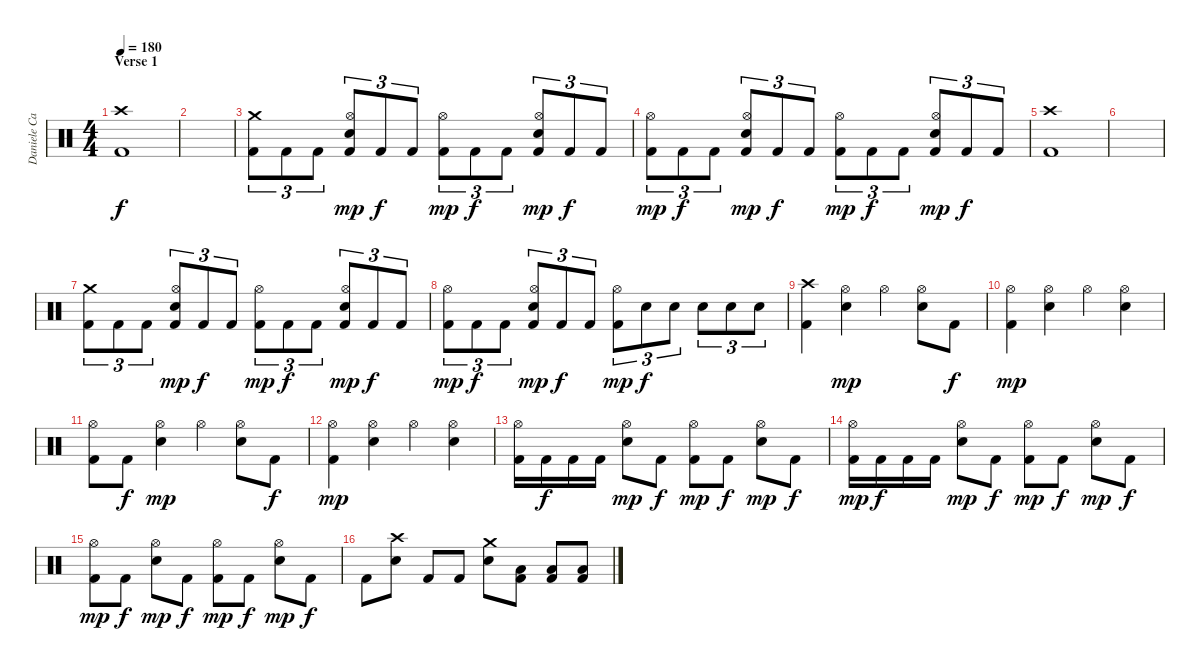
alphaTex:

\track ("Daniele Carbonera" "Daniele Ca") {instrument percussion}
\staff {score}
\articulation defaults
\ts (4 4)
\section ("" "Verse 1")
\tempo 180
\clef neutral
\ks c
("Kick (hit) 2" "Crash high (hit)").1{dy f} |
|
("Kick (hit) 2" "Crash medium (hit)").8{tu (3 2)} "Kick (hit) 2".8{tu (3 2)} "Kick (hit) 2".8{tu (3 2)} ("Kick (hit) 2" "Hi-Hat (open)" "Snare (hit) 2").8{tu (3 2) dy mp} "Kick (hit) 2".8{tu (3 2) dy f} "Kick (hit) 2".8{tu (3 2)} ("Kick (hit) 2" "Hi-Hat (open)").8{tu (3 2) dy mp} "Kick (hit) 2".8{tu (3 2) dy f} "Kick (hit) 2".8{tu (3 2)} ("Kick (hit) 2" "Hi-Hat (open)" "Snare (hit) 2").8{tu (3 2) dy mp} "Kick (hit) 2".8{tu (3 2) dy f} "Kick (hit) 2".8{tu (3 2)} |
("Kick (hit) 2" "Hi-Hat (open)").8{tu (3 2) dy mp} "Kick (hit) 2".8{tu (3 2) dy f} "Kick (hit) 2".8{tu (3 2)} ("Kick (hit) 2" "Hi-Hat (open)" "Snare (hit) 2").8{tu (3 2) dy mp} "Kick (hit) 2".8{tu (3 2) dy f} "Kick (hit) 2".8{tu (3 2)} ("Kick (hit) 2" "Hi-Hat (open)").8{tu (3 2) dy mp} "Kick (hit) 2".8{tu (3 2) dy f} "Kick (hit) 2".8{tu (3 2)} ("Kick (hit) 2" "Hi-Hat (open)" "Snare (hit) 2").8{tu (3 2) dy mp} "Kick (hit) 2".8{tu (3 2) dy f} "Kick (hit) 2".8{tu (3 2)} |
("Kick (hit) 2" "Crash high (hit)").1 |
|
("Kick (hit) 2" "Crash medium (hit)").8{tu (3 2)} "Kick (hit) 2".8{tu (3 2)} "Kick (hit) 2".8{tu (3 2)} ("Kick (hit) 2" "Hi-Hat (open)" "Snare (hit) 2").8{tu (3 2) dy mp} "Kick (hit) 2".8{tu (3 2) dy f} "Kick (hit) 2".8{tu (3 2)} ("Kick (hit) 2" "Hi-Hat (open)").8{tu (3 2) dy mp} "Kick (hit) 2".8{tu (3 2) dy f} "Kick (hit) 2".8{tu (3 2)} ("Kick (hit) 2" "Hi-Hat (open)" "Snare (hit) 2").8{tu (3 2) dy mp} "Kick (hit) 2".8{tu (3 2) dy f} "Kick (hit) 2".8{tu (3 2)} |
("Kick (hit) 2" "Hi-Hat (open)").8{tu (3 2) dy mp} "Kick (hit) 2".8{tu (3 2) dy f} "Kick (hit) 2".8{tu (3 2)} ("Kick (hit) 2" "Hi-Hat (open)" "Snare (hit) 2").8{tu (3 2) dy mp} "Kick (hit) 2".8{tu (3 2) dy f} "Kick (hit) 2".8{tu (3 2)} ("Kick (hit) 2" "Hi-Hat (open)").8{tu (3 2) dy mp} "Snare (hit) 2".8{tu (3 2) dy f} "Snare (hit) 2".8{tu (3 2)} "Snare (hit) 2".8{tu (3 2)} "Snare (hit) 2".8{tu (3 2)} "Snare (hit) 2".8{tu (3 2)} |
("Kick (hit) 2" "Crash high (hit)").4 ("Hi-Hat (open)" "Snare (hit) 2").4{dy mp} "Hi-Hat (open)".4 ("Hi-Hat (open)" "Snare (hit) 2").8 "Kick (hit) 2".8{dy f} |
("Kick (hit) 2" "Hi-Hat (open)").4{dy mp} ("Hi-Hat (open)" "Snare (hit) 2").4 "Hi-Hat (open)".4 ("Hi-Hat (open)" "Snare (hit) 2").4 |
("Kick (hit) 2" "Hi-Hat (open)").8 "Kick (hit) 2".8{dy f} ("Hi-Hat (open)" "Snare (hit) 2").4{dy mp} "Hi-Hat (open)".4 ("Hi-Hat (open)" "Snare (hit) 2").8 "Kick (hit) 2".8{dy f} |
("Kick (hit) 2" "Hi-Hat (open)").4{dy mp} ("Hi-Hat (open)" "Snare (hit) 2").4 "Hi-Hat (open)".4 ("Hi-Hat (open)" "Snare (hit) 2").4 |
("Kick (hit) 2" "Hi-Hat (open)").16 "Kick (hit) 2".16{dy f} "Kick (hit) 2".16 "Kick (hit) 2".16 ("Hi-Hat (open)" "Snare (hit) 2").8{dy mp} "Kick (hit) 2".8{dy f} ("Kick (hit) 2" "Hi-Hat (open)").8{dy mp} "Kick (hit) 2".8{dy f} ("Hi-Hat (open)" "Snare (hit) 2").8{dy mp} "Kick (hit) 2".8{dy f} |
("Kick (hit) 2" "Hi-Hat (open)").16{dy mp} "Kick (hit) 2".16{dy f} "Kick (hit) 2".16 "Kick (hit) 2".16 ("Hi-Hat (open)" "Snare (hit) 2").8{dy mp} "Kick (hit) 2".8{dy f} ("Kick (hit) 2" "Hi-Hat (open)").8{dy mp} "Kick (hit) 2".8{dy f} ("Hi-Hat (open)" "Snare (hit) 2").8{dy mp} "Kick (hit) 2".8{dy f} |
("Kick (hit) 2" "Hi-Hat (open)").8{dy mp} "Kick (hit) 2".8{dy f} ("Hi-Hat (open)" "Snare (hit) 2").8{dy mp} "Kick (hit) 2".8{dy f} ("Kick (hit) 2" "Hi-Hat (open)").8{dy mp} "Kick (hit) 2".8{dy f} ("Hi-Hat (open)" "Snare (hit) 2").8{dy mp} "Kick (hit) 2".8{dy f} |
"Kick (hit) 2".8 ("Crash high (hit)" "Snare (hit) 2").8 "Kick (hit) 2".8 "Kick (hit) 2".8 ("Crash medium (hit)" "Snare (hit) 2").8 ("Kick (hit) 2" "Low Tom (hit)").8 ("Kick (hit) 2" "Low Tom (hit)").8 ("Kick (hit) 2" "Low Tom (hit)").8
